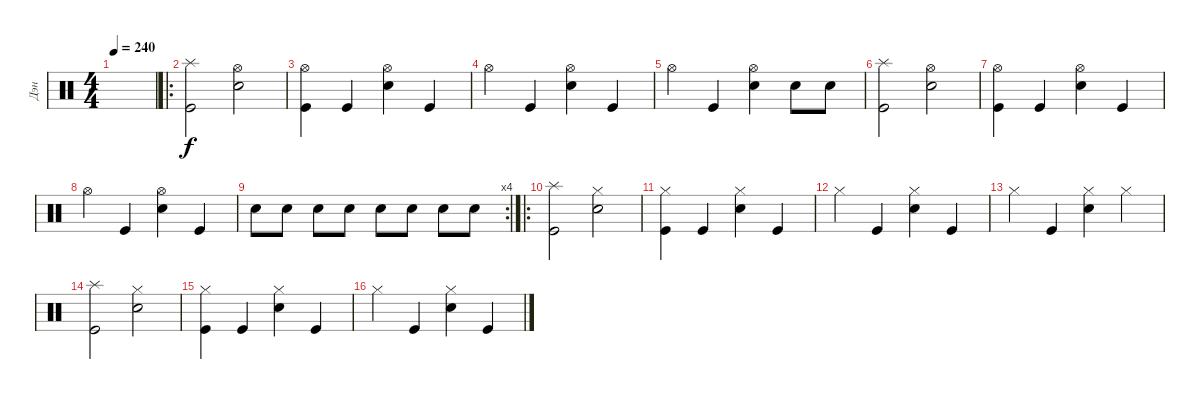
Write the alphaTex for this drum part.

\track ("Дэн" "Дэн") {instrument percussion}
\staff {score}
\articulation defaults
\ts (4 4)
\tempo 240
\clef neutral
\ks c
|
\ro
("Kick (hit)" "Splash (hit)").2 ("Snare (hit) 2" "Hi-Hat (open)").2 |
("Kick (hit)" "Hi-Hat (open)").4 "Kick (hit)".4 ("Snare (hit) 2" "Hi-Hat (open)").4 "Kick (hit)".4 |
"Hi-Hat (open)".4 "Kick (hit)".4 ("Snare (hit) 2" "Hi-Hat (open)").4 "Kick (hit)".4 |
"Hi-Hat (open)".4 "Kick (hit)".4 ("Snare (hit) 2" "Hi-Hat (open)").4 "Snare (hit) 2".8 "Snare (hit) 2".8 |
("Kick (hit)" "Splash (hit)").2 ("Snare (hit) 2" "Hi-Hat (open)").2 |
("Kick (hit)" "Hi-Hat (open)").4 "Kick (hit)".4 ("Snare (hit) 2" "Hi-Hat (open)").4 "Kick (hit)".4 |
"Hi-Hat (open)".4 "Kick (hit)".4 ("Snare (hit) 2" "Hi-Hat (open)").4 "Kick (hit)".4 |
\rc 4 "Snare (hit) 2".8 "Snare (hit) 2".8 "Snare (hit) 2".8 "Snare (hit) 2".8 "Snare (hit) 2".8 "Snare (hit) 2".8 "Snare (hit) 2".8 "Snare (hit) 2".8
|
\ro
("Kick (hit)" "Splash (hit)").2 ("Snare (hit) 2" "Hi-Hat (closed)").2 |
("Kick (hit)" "Hi-Hat (closed)").4 "Kick (hit)".4 ("Snare (hit) 2" "Hi-Hat (closed)").4 "Kick (hit)".4 |
"Hi-Hat (closed)".4 "Kick (hit)".4 ("Snare (hit) 2" "Hi-Hat (closed)").4 "Kick (hit)".4 |
"Hi-Hat (closed)".4 "Kick (hit)".4 ("Snare (hit) 2" "Hi-Hat (closed)").4 "Hi-Hat (closed)".4 |
("Kick (hit)" "Splash (hit)").2 ("Snare (hit) 2" "Hi-Hat (closed)").2 |
("Kick (hit)" "Hi-Hat (closed)").4 "Kick (hit)".4 ("Snare (hit) 2" "Hi-Hat (closed)").4 "Kick (hit)".4 |
"Hi-Hat (closed)".4 "Kick (hit)".4 ("Snare (hit) 2" "Hi-Hat (closed)").4 "Kick (hit)".4
